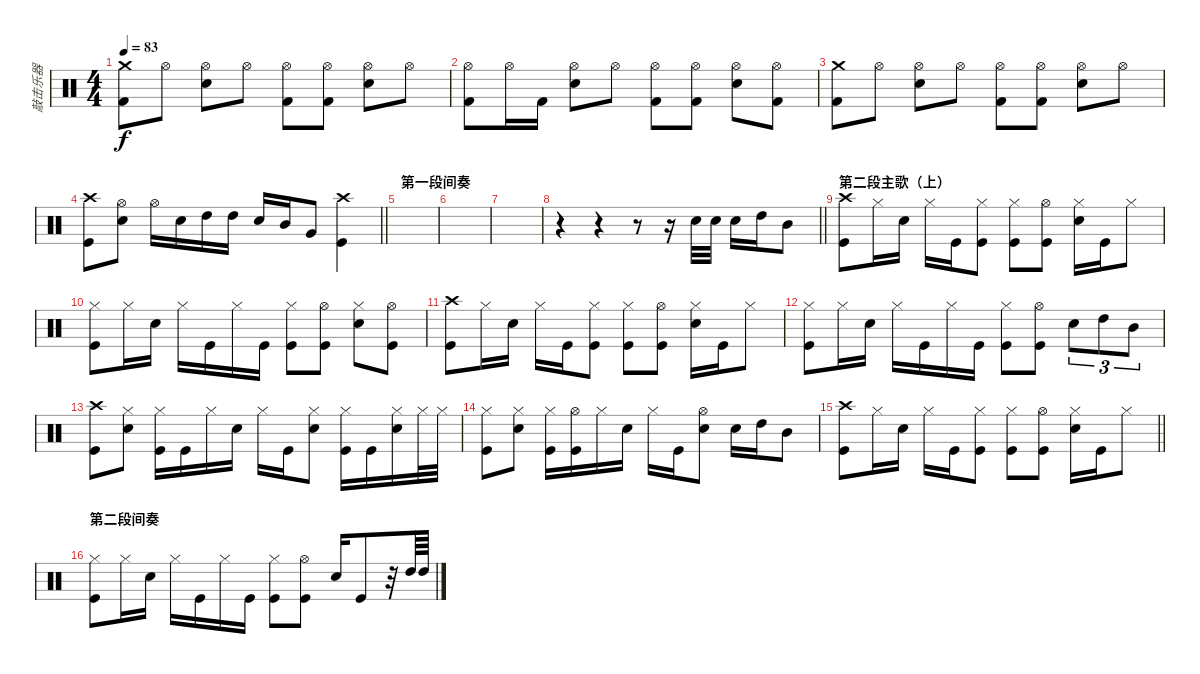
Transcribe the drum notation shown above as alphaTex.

\track ("敲击乐器" "敲击乐器") {mute instrument percussion}
\staff {score}
\articulation defaults
\ts (4 4)
\tempo 83
\clef neutral
\ks c
("Crash medium (hit)" "Kick (hit) 2").8{dy f} "Hi-Hat (open)".8 ("Hi-Hat (open)" "Electric Snare (hit)").8 "Hi-Hat (open)".8 ("Hi-Hat (open)" "Kick (hit) 2").8 ("Kick (hit) 2" "Hi-Hat (open)").8 ("Hi-Hat (open)" "Electric Snare (hit)").8 "Hi-Hat (open)".8 |
("Hi-Hat (open)" "Kick (hit) 2").8 "Hi-Hat (open)".16 "Kick (hit) 2".16 ("Hi-Hat (open)" "Electric Snare (hit)").8 "Hi-Hat (open)".8 ("Hi-Hat (open)" "Kick (hit) 2").8 ("Hi-Hat (open)" "Kick (hit) 2").8 ("Hi-Hat (open)" "Electric Snare (hit)").8 ("Hi-Hat (open)" "Kick (hit) 2").8 |
("Crash medium (hit)" "Kick (hit) 2").8 "Hi-Hat (open)".8 ("Hi-Hat (open)" "Electric Snare (hit)").8 "Hi-Hat (open)".8 ("Hi-Hat (open)" "Kick (hit) 2").8 ("Kick (hit) 2" "Hi-Hat (open)").8 ("Hi-Hat (open)" "Electric Snare (hit)").8 "Hi-Hat (open)".8 |
\barLineRight lightlight
("Crash high (hit)" "Kick (hit)").8 ("Hi-Hat (open)" "Snare (hit) 2").8 "Hi-Hat (open)".16 "Snare (hit) 2".16 "High Tom (hit)".16 "High Tom (hit)".16 "Snare (hit) 2".16 "Mid Tom (hit)".16 "Very Low Tom (hit)".8 ("Crash high (hit)" "Kick (hit)").4 |
\section ("" "第一段间奏")
|
|
|
\barLineRight lightlight
r.4 r.4 r.8 r.16 "Snare (hit) 2".32 "Snare (hit) 2".32 "Snare (hit) 2".16 "High Tom (hit)".16 "Mid Tom (hit)".8 |
\section ("" "第二段主歌（上）")
("Crash high (hit)" "Kick (hit)").8 "Hi-Hat (closed)".16 "Snare (hit) 2".16 "Hi-Hat (closed)".16 "Kick (hit)".16 ("Kick (hit)" "Hi-Hat (closed)").8 ("Hi-Hat (closed)" "Kick (hit)").8 ("Hi-Hat (open)" "Kick (hit)").8 ("Snare (hit) 2" "Hi-Hat (closed)").16 "Kick (hit)".16 "Hi-Hat (closed)".8 |
("Hi-Hat (closed)" "Kick (hit)").8 "Hi-Hat (closed)".16 "Snare (hit) 2".16 "Hi-Hat (closed)".16 "Kick (hit)".16 "Hi-Hat (closed)".16 "Kick (hit)".16 ("Hi-Hat (closed)" "Kick (hit)").8 ("Hi-Hat (open)" "Kick (hit)").8 ("Hi-Hat (closed)" "Snare (hit) 2").8 ("Hi-Hat (open)" "Kick (hit)").8 |
("Crash high (hit)" "Kick (hit)").8 "Hi-Hat (closed)".16 "Snare (hit) 2".16 "Hi-Hat (closed)".16 "Kick (hit)".16 ("Kick (hit)" "Hi-Hat (closed)").8 ("Hi-Hat (closed)" "Kick (hit)").8 ("Hi-Hat (open)" "Kick (hit)").8 ("Snare (hit) 2" "Hi-Hat (closed)").16 "Kick (hit)".16 "Hi-Hat (closed)".8 |
("Hi-Hat (closed)" "Kick (hit)").8 "Hi-Hat (closed)".16 "Snare (hit) 2".16 "Hi-Hat (closed)".16 "Kick (hit)".16 "Hi-Hat (closed)".16 "Kick (hit)".16 ("Hi-Hat (closed)" "Kick (hit)").8 ("Hi-Hat (open)" "Kick (hit)").8 "Snare (hit) 2".8{tu (3 2)} "High Tom (hit)".8{tu (3 2)} "Mid Tom (hit)".8{tu (3 2)} |
("Crash high (hit)" "Kick (hit)").8 ("Hi-Hat (closed)" "Snare (hit) 2").8 ("Hi-Hat (closed)" "Kick (hit)").16 "Kick (hit)".16 "Hi-Hat (closed)".16 "Snare (hit) 2".16 "Hi-Hat (closed)".16 "Kick (hit)".16 ("Hi-Hat (closed)" "Snare (hit) 2").8 ("Hi-Hat (closed)" "Kick (hit)").16 "Kick (hit)".16 ("Hi-Hat (closed)" "Snare (hit) 2").16 "Hi-Hat (closed)".32 "Hi-Hat (closed)".32 |
("Hi-Hat (closed)" "Kick (hit)").8 ("Hi-Hat (closed)" "Snare (hit) 2").8 ("Hi-Hat (closed)" "Kick (hit)").16 ("Kick (hit)" "Hi-Hat (open)").16 "Hi-Hat (closed)".16 "Snare (hit) 2".16 "Hi-Hat (closed)".16 "Kick (hit)".16 ("Hi-Hat (open)" "Snare (hit) 2").8 "Snare (hit) 2".16 "High Tom (hit)".16 "Mid Tom (hit)".8 |
\barLineRight lightlight
("Crash high (hit)" "Kick (hit)").8 "Hi-Hat (closed)".16 "Snare (hit) 2".16 "Hi-Hat (closed)".16 "Kick (hit)".16 ("Kick (hit)" "Hi-Hat (closed)").8 ("Hi-Hat (closed)" "Kick (hit)").8 ("Hi-Hat (open)" "Kick (hit)").8 ("Snare (hit) 2" "Hi-Hat (closed)").16 "Kick (hit)".16 "Hi-Hat (closed)".8 |
\section ("" "第二段间奏")
("Hi-Hat (closed)" "Kick (hit)").8 "Hi-Hat (closed)".16 "Snare (hit) 2".16 "Hi-Hat (closed)".16 "Kick (hit)".16 "Hi-Hat (closed)".16 "Kick (hit)".16 ("Hi-Hat (closed)" "Kick (hit)").8 ("Hi-Hat (open)" "Kick (hit)").8 "Snare (hit) 2".16 "Kick (hit)".8 r.32 "High Tom (hit)".64 "High Tom (hit)".64
